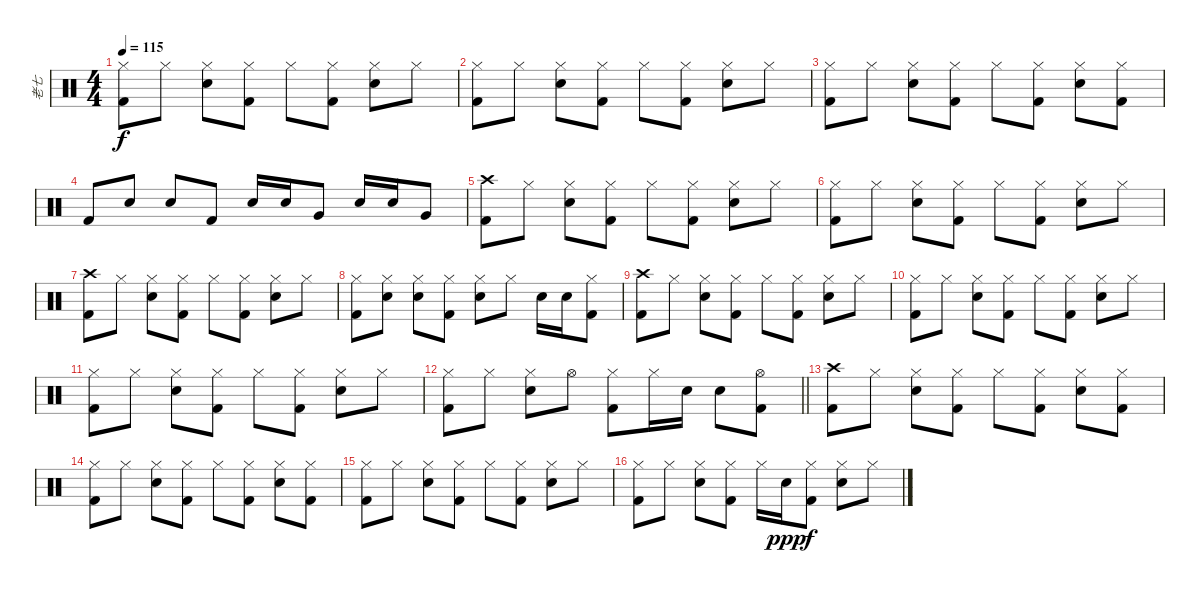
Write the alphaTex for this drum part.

\track ("老七" "老七") {instrument percussion}
\staff {score}
\articulation defaults
\ts (4 4)
\tempo 115
\clef neutral
\ks c
("Hi-Hat (closed)" "Kick (hit) 2").8{dy f} "Hi-Hat (closed)".8 ("Hi-Hat (closed)" "Electric Snare (hit)").8 ("Hi-Hat (closed)" "Kick (hit) 2").8 "Hi-Hat (closed)".8 ("Hi-Hat (closed)" "Kick (hit) 2").8 ("Hi-Hat (closed)" "Electric Snare (hit)").8 "Hi-Hat (closed)".8 |
("Hi-Hat (closed)" "Kick (hit) 2").8 "Hi-Hat (closed)".8 ("Hi-Hat (closed)" "Electric Snare (hit)").8 ("Hi-Hat (closed)" "Kick (hit) 2").8 "Hi-Hat (closed)".8 ("Hi-Hat (closed)" "Kick (hit) 2").8 ("Hi-Hat (closed)" "Electric Snare (hit)").8 "Hi-Hat (closed)".8 |
("Hi-Hat (closed)" "Kick (hit) 2").8 "Hi-Hat (closed)".8 ("Hi-Hat (closed)" "Electric Snare (hit)").8 ("Hi-Hat (closed)" "Kick (hit) 2").8 "Hi-Hat (closed)".8 ("Hi-Hat (closed)" "Kick (hit) 2").8 ("Hi-Hat (closed)" "Electric Snare (hit)").8 ("Hi-Hat (closed)" "Kick (hit) 2").8 |
"Kick (hit) 2".8 "Electric Snare (hit)".8 "Electric Snare (hit)".8 "Kick (hit) 2".8 "Electric Snare (hit)".16 "Electric Snare (hit)".16 "Very Low Tom (hit)".8 "Electric Snare (hit)".16 "Electric Snare (hit)".16 "Very Low Tom (hit)".8 |
("Crash high (hit)" "Kick (hit) 2").8 "Hi-Hat (closed)".8 ("Hi-Hat (closed)" "Electric Snare (hit)").8 ("Hi-Hat (closed)" "Kick (hit) 2").8 "Hi-Hat (closed)".8 ("Hi-Hat (closed)" "Kick (hit) 2").8 ("Hi-Hat (closed)" "Electric Snare (hit)").8 "Hi-Hat (closed)".8 |
("Hi-Hat (closed)" "Kick (hit) 2").8 "Hi-Hat (closed)".8 ("Hi-Hat (closed)" "Electric Snare (hit)").8 ("Hi-Hat (closed)" "Kick (hit) 2").8 "Hi-Hat (closed)".8 ("Hi-Hat (closed)" "Kick (hit) 2").8 ("Hi-Hat (closed)" "Electric Snare (hit)").8 "Hi-Hat (closed)".8 |
("Crash high (hit)" "Kick (hit) 2").8 "Hi-Hat (closed)".8 ("Hi-Hat (closed)" "Electric Snare (hit)").8 ("Hi-Hat (closed)" "Kick (hit) 2").8 "Hi-Hat (closed)".8 ("Hi-Hat (closed)" "Kick (hit) 2").8 ("Hi-Hat (closed)" "Electric Snare (hit)").8 "Hi-Hat (closed)".8 |
("Hi-Hat (closed)" "Kick (hit) 2").8 ("Hi-Hat (closed)" "Electric Snare (hit)").8 ("Hi-Hat (closed)" "Electric Snare (hit)").8 ("Hi-Hat (closed)" "Kick (hit) 2").8 ("Hi-Hat (closed)" "Electric Snare (hit)").8 "Hi-Hat (closed)".8 "Electric Snare (hit)".16 "Electric Snare (hit)".16 ("Hi-Hat (closed)" "Kick (hit) 2").8 |
("Crash high (hit)" "Kick (hit) 2").8 "Hi-Hat (closed)".8 ("Hi-Hat (closed)" "Electric Snare (hit)").8 ("Hi-Hat (closed)" "Kick (hit) 2").8 "Hi-Hat (closed)".8 ("Hi-Hat (closed)" "Kick (hit) 2").8 ("Hi-Hat (closed)" "Electric Snare (hit)").8 "Hi-Hat (closed)".8 |
("Hi-Hat (closed)" "Kick (hit) 2").8 "Hi-Hat (closed)".8 ("Hi-Hat (closed)" "Electric Snare (hit)").8 ("Hi-Hat (closed)" "Kick (hit) 2").8 "Hi-Hat (closed)".8 ("Hi-Hat (closed)" "Kick (hit) 2").8 ("Hi-Hat (closed)" "Electric Snare (hit)").8 "Hi-Hat (closed)".8 |
("Hi-Hat (closed)" "Kick (hit) 2").8 "Hi-Hat (closed)".8 ("Hi-Hat (closed)" "Electric Snare (hit)").8 ("Hi-Hat (closed)" "Kick (hit) 2").8 "Hi-Hat (closed)".8 ("Hi-Hat (closed)" "Kick (hit) 2").8 ("Hi-Hat (closed)" "Electric Snare (hit)").8 "Hi-Hat (closed)".8 |
\barLineRight lightlight
("Hi-Hat (closed)" "Kick (hit) 2").8 "Hi-Hat (closed)".8 ("Hi-Hat (closed)" "Electric Snare (hit)").8 "Hi-Hat (open)".8 ("Hi-Hat (closed)" "Kick (hit) 2").8 "Hi-Hat (closed)".16 "Electric Snare (hit)".16 "Electric Snare (hit)".8 ("Hi-Hat (open)" "Kick (hit) 2").8 |
("Crash high (hit)" "Kick (hit) 2").8 "Hi-Hat (closed)".8 ("Hi-Hat (closed)" "Electric Snare (hit)").8 ("Hi-Hat (closed)" "Kick (hit) 2").8 "Hi-Hat (closed)".8 ("Hi-Hat (closed)" "Kick (hit) 2").8 ("Hi-Hat (closed)" "Electric Snare (hit)").8 ("Hi-Hat (closed)" "Kick (hit) 2").8 |
("Hi-Hat (closed)" "Kick (hit) 2").8 "Hi-Hat (closed)".8 ("Hi-Hat (closed)" "Electric Snare (hit)").8 ("Hi-Hat (closed)" "Kick (hit) 2").8 "Hi-Hat (closed)".8 ("Hi-Hat (closed)" "Kick (hit) 2").8 ("Hi-Hat (closed)" "Electric Snare (hit)").8 ("Hi-Hat (closed)" "Kick (hit) 2").8 |
("Hi-Hat (closed)" "Kick (hit) 2").8 "Hi-Hat (closed)".8 ("Hi-Hat (closed)" "Electric Snare (hit)").8 ("Hi-Hat (closed)" "Kick (hit) 2").8 "Hi-Hat (closed)".8 ("Hi-Hat (closed)" "Kick (hit) 2").8 ("Hi-Hat (closed)" "Electric Snare (hit)").8 "Hi-Hat (closed)".8 |
("Hi-Hat (closed)" "Kick (hit) 2").8 "Hi-Hat (closed)".8 ("Hi-Hat (closed)" "Electric Snare (hit)").8 ("Hi-Hat (closed)" "Kick (hit) 2").8 "Hi-Hat (closed)".16 "Electric Snare (hit)".16{dy ppp} ("Hi-Hat (closed)" "Kick (hit) 2").8{dy f} ("Hi-Hat (closed)" "Electric Snare (hit)").8 "Hi-Hat (closed)".8
